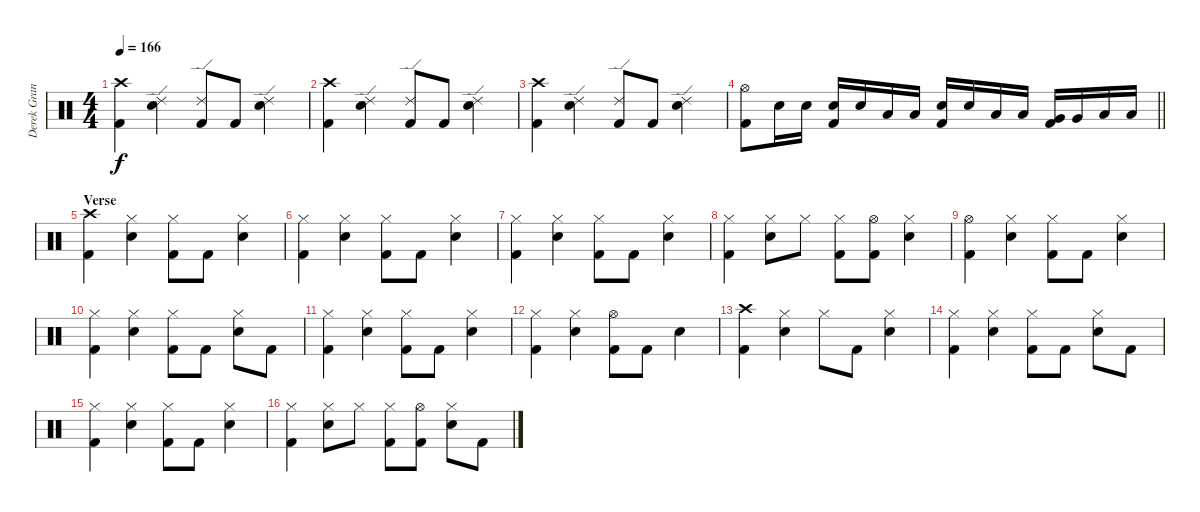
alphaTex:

\track ("Derek Grant - Drums" "Derek Gran") {instrument percussion}
\staff {score}
\articulation defaults
\ts (4 4)
\tempo 166
\clef neutral
\ks c
("Crash high (hit)" "Kick (hit) 2").4{dy f} ("Snare (hit) 2" "Ride (edge) 2").4 ("Kick (hit) 2" "Ride (edge) 2").8 "Kick (hit) 2".8 ("Ride (edge) 2" "Snare (hit) 2").4 |
("Crash high (hit)" "Kick (hit) 2").4 ("Snare (hit) 2" "Ride (edge) 2").4 ("Kick (hit) 2" "Ride (edge) 2").8 "Kick (hit) 2".8 ("Ride (edge) 2" "Snare (hit) 2").4 |
("Crash high (hit)" "Kick (hit) 2").4 ("Snare (hit) 2" "Ride (edge) 2").4 ("Kick (hit) 2" "Ride (edge) 2").8 "Kick (hit) 2".8 ("Ride (edge) 2" "Snare (hit) 2").4 |
\barLineRight lightlight
("Hi-Hat (open)" "Kick (hit) 2").8 "Snare (hit) 2".16 "Snare (hit) 2".16 ("Snare (hit) 2" "Kick (hit) 2").16 "Snare (hit) 2".16 "Low Tom (hit)".16 "Low Tom (hit)".16 ("Snare (hit) 2" "Kick (hit) 2").16 "Snare (hit) 2".16 "Low Tom (hit)".16 "Low Tom (hit)".16 ("Very Low Tom (hit)" "Kick (hit) 2").16 "Very Low Tom (hit)".16 "Low Floor Tom (hit)".16 "Low Floor Tom (hit)".16 |
\section ("" "Verse")
("Kick (hit) 2" "Crash high (hit)").4 ("Snare (hit) 2" "Hi-Hat (closed)").4 ("Kick (hit) 2" "Hi-Hat (closed)").8 "Kick (hit) 2".8 ("Snare (hit) 2" "Hi-Hat (closed)").4 |
("Hi-Hat (closed)" "Kick (hit) 2").4 ("Snare (hit) 2" "Hi-Hat (closed)").4 ("Kick (hit) 2" "Hi-Hat (closed)").8 "Kick (hit) 2".8 ("Snare (hit) 2" "Hi-Hat (closed)").4 |
("Hi-Hat (closed)" "Kick (hit) 2").4 ("Snare (hit) 2" "Hi-Hat (closed)").4 ("Kick (hit) 2" "Hi-Hat (closed)").8 "Kick (hit) 2".8 ("Snare (hit) 2" "Hi-Hat (closed)").4 |
("Hi-Hat (closed)" "Kick (hit) 2").4 ("Snare (hit) 2" "Hi-Hat (closed)").8 "Hi-Hat (closed)".8 ("Kick (hit) 2" "Hi-Hat (closed)").8 ("Kick (hit) 2" "Hi-Hat (open)").8 ("Snare (hit) 2" "Hi-Hat (closed)").4 |
("Hi-Hat (open)" "Kick (hit) 2").4 ("Snare (hit) 2" "Hi-Hat (closed)").4 ("Kick (hit) 2" "Hi-Hat (closed)").8 "Kick (hit) 2".8 ("Snare (hit) 2" "Hi-Hat (closed)").4 |
("Hi-Hat (closed)" "Kick (hit) 2").4 ("Snare (hit) 2" "Hi-Hat (closed)").4 ("Kick (hit) 2" "Hi-Hat (closed)").8 "Kick (hit) 2".8 ("Snare (hit) 2" "Hi-Hat (closed)").8 "Kick (hit) 2".8 |
("Hi-Hat (closed)" "Kick (hit) 2").4 ("Snare (hit) 2" "Hi-Hat (closed)").4 ("Kick (hit) 2" "Hi-Hat (closed)").8 "Kick (hit) 2".8 ("Snare (hit) 2" "Hi-Hat (closed)").4 |
("Hi-Hat (closed)" "Kick (hit) 2").4 ("Snare (hit) 2" "Hi-Hat (closed)").4 ("Kick (hit) 2" "Hi-Hat (open)").8 "Kick (hit) 2".8 "Snare (hit) 2".4 |
("Kick (hit) 2" "Crash high (hit)").4 ("Snare (hit) 2" "Hi-Hat (closed)").4 "Hi-Hat (closed)".8 "Kick (hit) 2".8 ("Snare (hit) 2" "Hi-Hat (closed)").4 |
("Hi-Hat (closed)" "Kick (hit) 2").4 ("Snare (hit) 2" "Hi-Hat (closed)").4 ("Kick (hit) 2" "Hi-Hat (closed)").8 "Kick (hit) 2".8 ("Snare (hit) 2" "Hi-Hat (closed)").8 "Kick (hit) 2".8 |
("Hi-Hat (closed)" "Kick (hit) 2").4 ("Snare (hit) 2" "Hi-Hat (closed)").4 ("Kick (hit) 2" "Hi-Hat (closed)").8 "Kick (hit) 2".8 ("Snare (hit) 2" "Hi-Hat (closed)").4 |
("Hi-Hat (closed)" "Kick (hit) 2").4 ("Snare (hit) 2" "Hi-Hat (closed)").8 "Hi-Hat (closed)".8 ("Kick (hit) 2" "Hi-Hat (closed)").8 ("Kick (hit) 2" "Hi-Hat (open)").8 ("Snare (hit) 2" "Hi-Hat (closed)").8 "Kick (hit) 2".8
